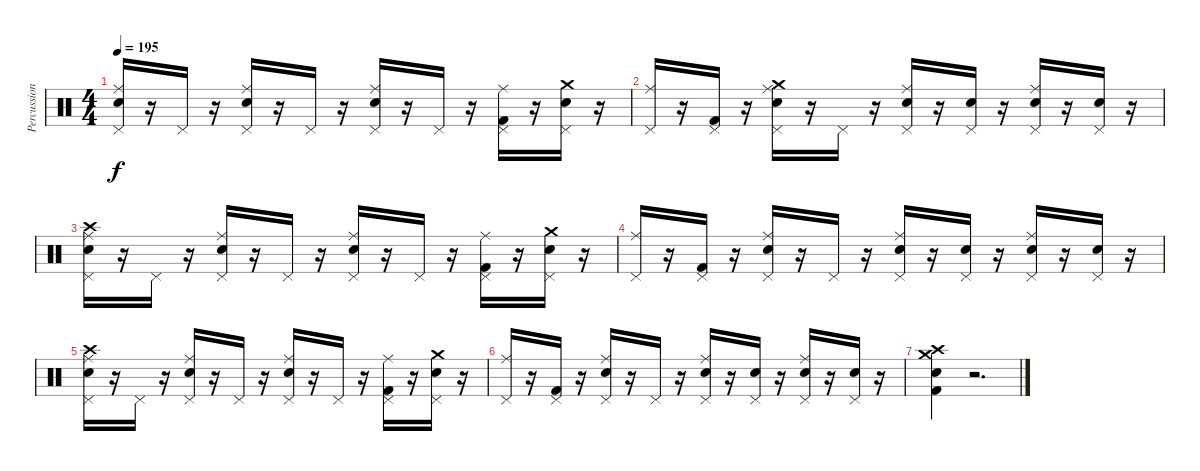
\track ("Percussion" "Percussion") {instrument percussion}
\staff {score}
\articulation defaults
\ts (4 4)
\tempo 195
\clef neutral
\ks c
("Pedal Hi-Hat (hit)" "Ride (middle)" "Snare (hit) 2").16{dy f} r.16 "Pedal Hi-Hat (hit)".16 r.16 ("Pedal Hi-Hat (hit)" "Ride (middle)" "Snare (hit) 2").16 r.16 "Pedal Hi-Hat (hit)".16 r.16 ("Pedal Hi-Hat (hit)" "Ride (middle)" "Snare (hit) 2").16 r.16 "Pedal Hi-Hat (hit)".16 r.16 ("Pedal Hi-Hat (hit)" "Ride (middle)" "Kick (hit) 2").16 r.16 ("Crash medium (hit)" "Pedal Hi-Hat (hit)" "Snare (hit) 2").16 r.16 |
("Pedal Hi-Hat (hit)" "Ride (middle)").16 r.16 ("Pedal Hi-Hat (hit)" "Kick (hit) 2").16 r.16 ("Crash medium (hit)" "Pedal Hi-Hat (hit)" "Ride (middle)" "Snare (hit) 2").16 r.16 "Pedal Hi-Hat (hit)".16 r.16 ("Pedal Hi-Hat (hit)" "Ride (middle)" "Snare (hit) 2").16 r.16 ("Pedal Hi-Hat (hit)" "Snare (hit) 2").16 r.16 ("Pedal Hi-Hat (hit)" "Ride (middle)" "Snare (hit) 2").16 r.16 ("Pedal Hi-Hat (hit)" "Snare (hit) 2").16 r.16 |
("Crash high (hit)" "Pedal Hi-Hat (hit)" "Ride (middle)" "Snare (hit) 2").16 r.16 "Pedal Hi-Hat (hit)".16 r.16 ("Pedal Hi-Hat (hit)" "Ride (middle)" "Snare (hit) 2").16 r.16 "Pedal Hi-Hat (hit)".16 r.16 ("Pedal Hi-Hat (hit)" "Ride (middle)" "Snare (hit) 2").16 r.16 "Pedal Hi-Hat (hit)".16 r.16 ("Pedal Hi-Hat (hit)" "Ride (middle)" "Kick (hit) 2").16 r.16 ("Crash medium (hit)" "Pedal Hi-Hat (hit)" "Snare (hit) 2").16 r.16 |
("Pedal Hi-Hat (hit)" "Ride (middle)").16 r.16 ("Pedal Hi-Hat (hit)" "Kick (hit) 2").16 r.16 ("Pedal Hi-Hat (hit)" "Ride (middle)" "Snare (hit) 2").16 r.16 "Pedal Hi-Hat (hit)".16 r.16 ("Pedal Hi-Hat (hit)" "Ride (middle)" "Snare (hit) 2").16 r.16 ("Pedal Hi-Hat (hit)" "Snare (hit) 2").16 r.16 ("Pedal Hi-Hat (hit)" "Ride (middle)" "Snare (hit) 2").16 r.16 ("Pedal Hi-Hat (hit)" "Snare (hit) 2").16 r.16 |
("Crash high (hit)" "Pedal Hi-Hat (hit)" "Ride (middle)" "Snare (hit) 2").16 r.16 "Pedal Hi-Hat (hit)".16 r.16 ("Pedal Hi-Hat (hit)" "Ride (middle)" "Snare (hit) 2").16 r.16 "Pedal Hi-Hat (hit)".16 r.16 ("Pedal Hi-Hat (hit)" "Ride (middle)" "Snare (hit) 2").16 r.16 "Pedal Hi-Hat (hit)".16 r.16 ("Pedal Hi-Hat (hit)" "Ride (middle)" "Kick (hit) 2").16 r.16 ("Crash medium (hit)" "Pedal Hi-Hat (hit)" "Snare (hit) 2").16 r.16 |
("Pedal Hi-Hat (hit)" "Ride (middle)").16 r.16 ("Pedal Hi-Hat (hit)" "Kick (hit) 2").16 r.16 ("Pedal Hi-Hat (hit)" "Ride (middle)" "Snare (hit) 2").16 r.16 "Pedal Hi-Hat (hit)".16 r.16 ("Pedal Hi-Hat (hit)" "Ride (middle)" "Snare (hit) 2").16 r.16 ("Pedal Hi-Hat (hit)" "Snare (hit) 2").16 r.16 ("Pedal Hi-Hat (hit)" "Ride (middle)" "Snare (hit) 2").16 r.16 ("Pedal Hi-Hat (hit)" "Snare (hit) 2").16 r.16 |
("Crash high (hit)" "Crash medium (hit)" "Snare (hit) 2" "Kick (hit) 2").4 r.2{d}
